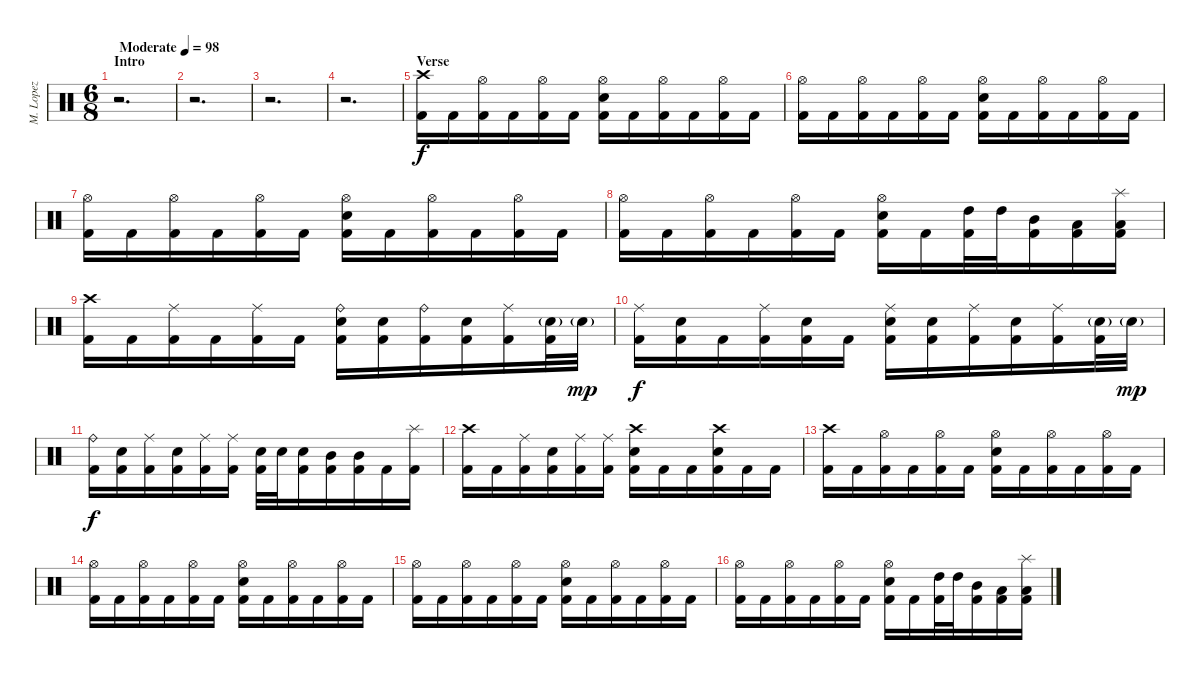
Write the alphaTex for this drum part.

\track ("M. Lopez" "M. Lopez") {instrument percussion}
\staff {score}
\articulation defaults
\ts (6 8)
\section ("" "Intro")
\tempo (98 "Moderate")
\clef neutral
\ks c
r.2{d dy f} |
r.2{d} |
r.2{d} |
r.2{d} |
\section ("" "Verse")
("Crash high (hit)" "Kick (hit) 2").16 "Kick (hit) 2".16 ("Hi-Hat (open)" "Kick (hit) 2").16 "Kick (hit) 2".16 ("Hi-Hat (open)" "Kick (hit) 2").16 "Kick (hit) 2".16 ("Hi-Hat (open)" "Electric Snare (hit)" "Kick (hit) 2").16 "Kick (hit) 2".16 ("Hi-Hat (open)" "Kick (hit) 2").16 "Kick (hit) 2".16 ("Hi-Hat (open)" "Kick (hit) 2").16 "Kick (hit) 2".16 |
("Hi-Hat (open)" "Kick (hit) 2").16 "Kick (hit) 2".16 ("Hi-Hat (open)" "Kick (hit) 2").16 "Kick (hit) 2".16 ("Hi-Hat (open)" "Kick (hit) 2").16 "Kick (hit) 2".16 ("Hi-Hat (open)" "Electric Snare (hit)" "Kick (hit) 2").16 "Kick (hit) 2".16 ("Hi-Hat (open)" "Kick (hit) 2").16 "Kick (hit) 2".16 ("Hi-Hat (open)" "Kick (hit) 2").16 "Kick (hit) 2".16 |
("Hi-Hat (open)" "Kick (hit) 2").16 "Kick (hit) 2".16 ("Hi-Hat (open)" "Kick (hit) 2").16 "Kick (hit) 2".16 ("Hi-Hat (open)" "Kick (hit) 2").16 "Kick (hit) 2".16 ("Hi-Hat (open)" "Electric Snare (hit)" "Kick (hit) 2").16 "Kick (hit) 2".16 ("Hi-Hat (open)" "Kick (hit) 2").16 "Kick (hit) 2".16 ("Hi-Hat (open)" "Kick (hit) 2").16 "Kick (hit) 2".16 |
("Hi-Hat (open)" "Kick (hit) 2").16 "Kick (hit) 2".16 ("Hi-Hat (open)" "Kick (hit) 2").16 "Kick (hit) 2".16 ("Hi-Hat (open)" "Kick (hit) 2").16 "Kick (hit) 2".16 ("Hi-Hat (open)" "Electric Snare (hit)" "Kick (hit) 2").16 "Kick (hit) 2".16 ("High Tom (hit)" "Kick (hit) 2").32 "High Tom (hit)".32 ("Mid Tom (hit)" "Kick (hit) 2").16 ("Low Tom (hit)" "Kick (hit) 2").16 ("Splash (hit)" "Low Tom (hit)" "Kick (hit) 2").16 |
("Crash high (hit)" "Kick (hit) 2").16 "Kick (hit) 2".16 ("Ride (middle)" "Kick (hit) 2").16 "Kick (hit) 2".16 ("Ride (middle)" "Kick (hit) 2").16 "Kick (hit) 2".16 ("Ride (bell)" "Electric Snare (hit)" "Kick (hit) 2").16 ("Electric Snare (hit)" "Kick (hit) 2").16 ("Ride (bell)" "Kick (hit) 2").16 ("Electric Snare (hit)" "Kick (hit) 2").16 ("Ride (middle)" "Kick (hit) 2").16 ("Electric Snare (hit)"{g} "Kick (hit) 2").32 "Electric Snare (hit)"{g}.32{dy mp} |
("Ride (middle)" "Kick (hit) 2").16{dy f} ("Electric Snare (hit)" "Kick (hit) 2").16 "Kick (hit) 2".16 ("Ride (middle)" "Kick (hit) 2").16 ("Electric Snare (hit)" "Kick (hit) 2").16 "Kick (hit) 2".16 ("Ride (middle)" "Electric Snare (hit)" "Kick (hit) 2").16 ("Electric Snare (hit)" "Kick (hit) 2").16 ("Ride (middle)" "Kick (hit) 2").16 ("Electric Snare (hit)" "Kick (hit) 2").16 ("Ride (middle)" "Kick (hit) 2").16 ("Electric Snare (hit)"{g} "Kick (hit) 2").32 "Electric Snare (hit)"{g}.32{dy mp} |
("Ride (bell)" "Kick (hit) 2").16{dy f} ("Electric Snare (hit)" "Kick (hit) 2").16 ("Ride (middle)" "Kick (hit) 2").16 ("Electric Snare (hit)" "Kick (hit) 2").16 ("Ride (middle)" "Kick (hit) 2").16 ("Ride (middle)" "Kick (hit) 2").16 ("Electric Snare (hit)" "Kick (hit) 2").32 "Electric Snare (hit)".32 ("Electric Snare (hit)" "Kick (hit) 2").16 ("Mid Tom (hit)" "Kick (hit) 2").16 ("Mid Tom (hit)" "Kick (hit) 2").16 "Kick (hit) 2".16 ("Splash (hit)" "Kick (hit) 2").16 |
("Crash high (hit)" "Kick (hit) 2").16 "Kick (hit) 2".16 ("Ride (middle)" "Kick (hit) 2").16 ("Electric Snare (hit)" "Kick (hit) 2").16 ("Ride (middle)" "Kick (hit) 2").16 ("Ride (middle)" "Kick (hit) 2").16 ("Crash high (hit)" "Electric Snare (hit)" "Kick (hit) 2").16 "Kick (hit) 2".16 "Kick (hit) 2".16 ("Crash high (hit)" "Electric Snare (hit)" "Kick (hit) 2").16 "Kick (hit) 2".16 "Kick (hit) 2".16 |
("Crash high (hit)" "Kick (hit) 2").16 "Kick (hit) 2".16 ("Hi-Hat (open)" "Kick (hit) 2").16 "Kick (hit) 2".16 ("Hi-Hat (open)" "Kick (hit) 2").16 "Kick (hit) 2".16 ("Hi-Hat (open)" "Electric Snare (hit)" "Kick (hit) 2").16 "Kick (hit) 2".16 ("Hi-Hat (open)" "Kick (hit) 2").16 "Kick (hit) 2".16 ("Hi-Hat (open)" "Kick (hit) 2").16 "Kick (hit) 2".16 |
("Hi-Hat (open)" "Kick (hit) 2").16 "Kick (hit) 2".16 ("Hi-Hat (open)" "Kick (hit) 2").16 "Kick (hit) 2".16 ("Hi-Hat (open)" "Kick (hit) 2").16 "Kick (hit) 2".16 ("Hi-Hat (open)" "Electric Snare (hit)" "Kick (hit) 2").16 "Kick (hit) 2".16 ("Hi-Hat (open)" "Kick (hit) 2").16 "Kick (hit) 2".16 ("Hi-Hat (open)" "Kick (hit) 2").16 "Kick (hit) 2".16 |
("Hi-Hat (open)" "Kick (hit) 2").16 "Kick (hit) 2".16 ("Hi-Hat (open)" "Kick (hit) 2").16 "Kick (hit) 2".16 ("Hi-Hat (open)" "Kick (hit) 2").16 "Kick (hit) 2".16 ("Hi-Hat (open)" "Electric Snare (hit)" "Kick (hit) 2").16 "Kick (hit) 2".16 ("Hi-Hat (open)" "Kick (hit) 2").16 "Kick (hit) 2".16 ("Hi-Hat (open)" "Kick (hit) 2").16 "Kick (hit) 2".16 |
("Hi-Hat (open)" "Kick (hit) 2").16 "Kick (hit) 2".16 ("Hi-Hat (open)" "Kick (hit) 2").16 "Kick (hit) 2".16 ("Hi-Hat (open)" "Kick (hit) 2").16 "Kick (hit) 2".16 ("Hi-Hat (open)" "Electric Snare (hit)" "Kick (hit) 2").16 "Kick (hit) 2".16 ("High Tom (hit)" "Kick (hit) 2").32 "High Tom (hit)".32 ("Mid Tom (hit)" "Kick (hit) 2").16 ("Low Tom (hit)" "Kick (hit) 2").16 ("Splash (hit)" "Low Tom (hit)" "Kick (hit) 2").16
